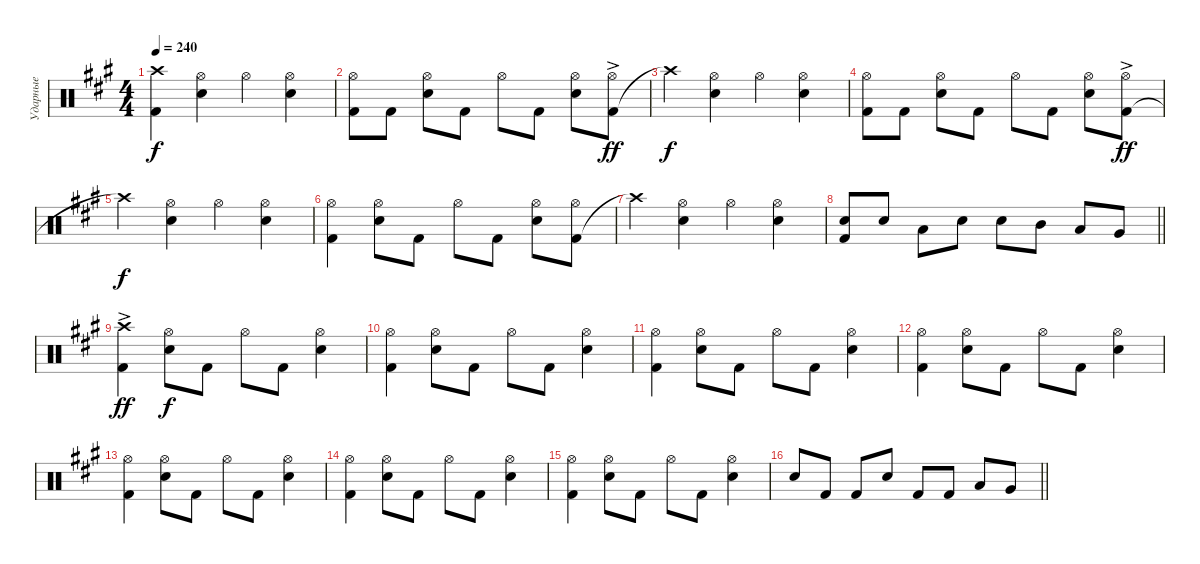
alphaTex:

\track ("Ударные" "Ударные") {instrument percussion}
\staff {score}
\articulation defaults
\ts (4 4)
\tempo 240
\clef neutral
\ks a
("Kick (hit) 2" "Crash high (hit)").4{dy f} ("Snare (hit) 2" "Hi-Hat (open)").4 "Hi-Hat (open)".4 ("Snare (hit) 2" "Hi-Hat (open)").4 |
("Kick (hit) 2" "Hi-Hat (open)").8 "Kick (hit) 2".8 ("Snare (hit) 2" "Hi-Hat (open)").8 "Kick (hit) 2".8 "Hi-Hat (open)".8 "Kick (hit) 2".8 ("Snare (hit) 2" "Hi-Hat (open)").8 ("Kick (hit) 2" "Hi-Hat (open)"{ac}).8{dy ff} |
"Crash high (hit)"{t}.4{dy f} ("Snare (hit) 2" "Hi-Hat (open)").4 "Hi-Hat (open)".4 ("Snare (hit) 2" "Hi-Hat (open)").4 |
("Kick (hit) 2" "Hi-Hat (open)").8 "Kick (hit) 2".8 ("Snare (hit) 2" "Hi-Hat (open)").8 "Kick (hit) 2".8 "Hi-Hat (open)".8 "Kick (hit) 2".8 ("Snare (hit) 2" "Hi-Hat (open)").8 ("Kick (hit) 2" "Hi-Hat (open)"{ac}).8{dy ff} |
"Crash high (hit)"{t}.4{dy f} ("Snare (hit) 2" "Hi-Hat (open)").4 "Hi-Hat (open)".4 ("Snare (hit) 2" "Hi-Hat (open)").4 |
("Kick (hit) 2" "Hi-Hat (open)").4 ("Snare (hit) 2" "Hi-Hat (open)").8 "Kick (hit) 2".8 "Hi-Hat (open)".8 "Kick (hit) 2".8 ("Snare (hit) 2" "Hi-Hat (open)").8 ("Kick (hit) 2" "Hi-Hat (open)").8 |
"Crash high (hit)"{t}.4 ("Snare (hit) 2" "Hi-Hat (open)").4 "Hi-Hat (open)".4 ("Snare (hit) 2" "Hi-Hat (open)").4 |
\barLineRight lightlight
("Kick (hit) 2" "Snare (hit) 2").8 "Snare (hit) 2".8 "Low Tom (hit)".8 "Snare (hit) 2".8 "Snare (hit) 2".8 "Mid Tom (hit)".8 "Low Tom (hit)".8 "Very Low Tom (hit)".8 |
("Kick (hit) 2" "Crash high (hit)"{ac}).4{dy ff} ("Snare (hit) 2" "Hi-Hat (open)").8{dy f} "Kick (hit) 2".8 "Hi-Hat (open)".8 "Kick (hit) 2".8 ("Snare (hit) 2" "Hi-Hat (open)").4 |
("Kick (hit) 2" "Hi-Hat (open)").4 ("Snare (hit) 2" "Hi-Hat (open)").8 "Kick (hit) 2".8 "Hi-Hat (open)".8 "Kick (hit) 2".8 ("Snare (hit) 2" "Hi-Hat (open)").4 |
("Kick (hit) 2" "Hi-Hat (open)").4 ("Snare (hit) 2" "Hi-Hat (open)").8 "Kick (hit) 2".8 "Hi-Hat (open)".8 "Kick (hit) 2".8 ("Snare (hit) 2" "Hi-Hat (open)").4 |
("Kick (hit) 2" "Hi-Hat (open)").4 ("Snare (hit) 2" "Hi-Hat (open)").8 "Kick (hit) 2".8 "Hi-Hat (open)".8 "Kick (hit) 2".8 ("Snare (hit) 2" "Hi-Hat (open)").4 |
("Kick (hit) 2" "Hi-Hat (open)").4 ("Snare (hit) 2" "Hi-Hat (open)").8 "Kick (hit) 2".8 "Hi-Hat (open)".8 "Kick (hit) 2".8 ("Snare (hit) 2" "Hi-Hat (open)").4 |
("Kick (hit) 2" "Hi-Hat (open)").4 ("Snare (hit) 2" "Hi-Hat (open)").8 "Kick (hit) 2".8 "Hi-Hat (open)".8 "Kick (hit) 2".8 ("Snare (hit) 2" "Hi-Hat (open)").4 |
("Kick (hit) 2" "Hi-Hat (open)").4 ("Snare (hit) 2" "Hi-Hat (open)").8 "Kick (hit) 2".8 "Hi-Hat (open)".8 "Kick (hit) 2".8 ("Snare (hit) 2" "Hi-Hat (open)").4 |
\barLineRight lightlight "Snare (hit) 2".8 "Kick (hit) 2".8 "Kick (hit) 2".8 "Snare (hit) 2".8 "Kick (hit) 2".8 "Kick (hit) 2".8 "Low Tom (hit)".8 "Very Low Tom (hit)".8
